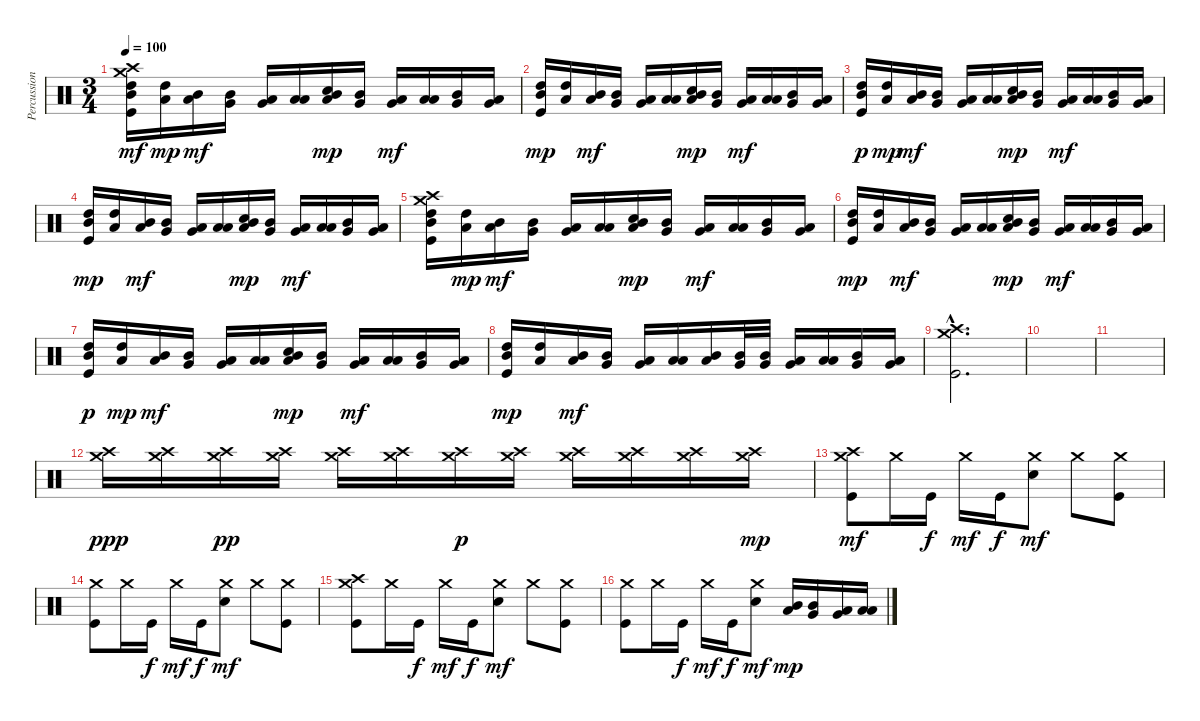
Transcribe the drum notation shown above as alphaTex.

\track ("Percussions" "Percussion") {instrument percussion}
\staff {score}
\articulation defaults
\ts (3 4)
\tempo 100
\clef neutral
\ks c
("Kick (hit)" "Mid Tom (hit)" "High Tom (hit)" "Crash high (hit)" "Crash medium (hit)").16{dy mf} ("Low Tom (hit)" "High Tom (hit)").16{dy mp} ("Low Tom (hit)" "Mid Tom (hit)").16{dy mf} ("Very Low Tom (hit)" "Mid Tom (hit)").16 ("Very Low Tom (hit)" "Low Tom (hit)").16 ("Low Floor Tom (hit)" "Low Tom (hit)").16 ("Electric Snare (hit)" "Low Tom (hit)" "Mid Tom (hit)").16{dy mp} ("Very Low Tom (hit)" "Mid Tom (hit)").16 ("Very Low Tom (hit)" "Low Tom (hit)").16{dy mf} ("Low Floor Tom (hit)" "Low Tom (hit)").16 ("Mid Tom (hit)" "Very Low Tom (hit)").16 ("Low Floor Tom (hit)" "Very Low Tom (hit)").16 |
("Kick (hit)" "Mid Tom (hit)" "High Tom (hit)").16{dy mp} ("Low Tom (hit)" "High Tom (hit)").16 ("Low Tom (hit)" "Mid Tom (hit)").16{dy mf} ("Very Low Tom (hit)" "Mid Tom (hit)").16 ("Very Low Tom (hit)" "Low Tom (hit)").16 ("Low Floor Tom (hit)" "Low Tom (hit)").16 ("Electric Snare (hit)" "Low Tom (hit)" "Mid Tom (hit)").16{dy mp} ("Very Low Tom (hit)" "Mid Tom (hit)").16 ("Very Low Tom (hit)" "Low Tom (hit)").16{dy mf} ("Low Floor Tom (hit)" "Low Tom (hit)").16 ("Mid Tom (hit)" "Very Low Tom (hit)").16 ("Low Floor Tom (hit)" "Very Low Tom (hit)").16 |
("Kick (hit)" "Mid Tom (hit)" "High Tom (hit)").16{dy p} ("Low Tom (hit)" "High Tom (hit)").16{dy mp} ("Low Tom (hit)" "Mid Tom (hit)").16{dy mf} ("Very Low Tom (hit)" "Mid Tom (hit)").16 ("Very Low Tom (hit)" "Low Tom (hit)").16 ("Low Floor Tom (hit)" "Low Tom (hit)").16 ("Electric Snare (hit)" "Low Tom (hit)" "Mid Tom (hit)").16{dy mp} ("Very Low Tom (hit)" "Mid Tom (hit)").16 ("Very Low Tom (hit)" "Low Tom (hit)").16{dy mf} ("Low Floor Tom (hit)" "Low Tom (hit)").16 ("Mid Tom (hit)" "Very Low Tom (hit)").16 ("Low Floor Tom (hit)" "Very Low Tom (hit)").16 |
("Kick (hit)" "Mid Tom (hit)" "High Tom (hit)").16{dy mp} ("Low Tom (hit)" "High Tom (hit)").16 ("Low Tom (hit)" "Mid Tom (hit)").16{dy mf} ("Very Low Tom (hit)" "Mid Tom (hit)").16 ("Very Low Tom (hit)" "Low Tom (hit)").16 ("Low Floor Tom (hit)" "Low Tom (hit)").16 ("Electric Snare (hit)" "Low Tom (hit)" "Mid Tom (hit)").16{dy mp} ("Very Low Tom (hit)" "Mid Tom (hit)").16 ("Very Low Tom (hit)" "Low Tom (hit)").16{dy mf} ("Low Floor Tom (hit)" "Low Tom (hit)").16 ("Mid Tom (hit)" "Very Low Tom (hit)").16 ("Low Floor Tom (hit)" "Very Low Tom (hit)").16 |
("Kick (hit)" "Mid Tom (hit)" "High Tom (hit)" "Crash high (hit)" "Crash medium (hit)").16 ("Low Tom (hit)" "High Tom (hit)").16{dy mp} ("Low Tom (hit)" "Mid Tom (hit)").16{dy mf} ("Very Low Tom (hit)" "Mid Tom (hit)").16 ("Very Low Tom (hit)" "Low Tom (hit)").16 ("Low Floor Tom (hit)" "Low Tom (hit)").16 ("Electric Snare (hit)" "Low Tom (hit)" "Mid Tom (hit)").16{dy mp} ("Very Low Tom (hit)" "Mid Tom (hit)").16 ("Very Low Tom (hit)" "Low Tom (hit)").16{dy mf} ("Low Floor Tom (hit)" "Low Tom (hit)").16 ("Mid Tom (hit)" "Very Low Tom (hit)").16 ("Low Floor Tom (hit)" "Very Low Tom (hit)").16 |
("Kick (hit)" "Mid Tom (hit)" "High Tom (hit)").16{dy mp} ("Low Tom (hit)" "High Tom (hit)").16 ("Low Tom (hit)" "Mid Tom (hit)").16{dy mf} ("Very Low Tom (hit)" "Mid Tom (hit)").16 ("Very Low Tom (hit)" "Low Tom (hit)").16 ("Low Floor Tom (hit)" "Low Tom (hit)").16 ("Electric Snare (hit)" "Low Tom (hit)" "Mid Tom (hit)").16{dy mp} ("Very Low Tom (hit)" "Mid Tom (hit)").16 ("Very Low Tom (hit)" "Low Tom (hit)").16{dy mf} ("Low Floor Tom (hit)" "Low Tom (hit)").16 ("Mid Tom (hit)" "Very Low Tom (hit)").16 ("Low Floor Tom (hit)" "Very Low Tom (hit)").16 |
("Kick (hit)" "Mid Tom (hit)" "High Tom (hit)").16{dy p} ("Low Tom (hit)" "High Tom (hit)").16{dy mp} ("Low Tom (hit)" "Mid Tom (hit)").16{dy mf} ("Very Low Tom (hit)" "Mid Tom (hit)").16 ("Very Low Tom (hit)" "Low Tom (hit)").16 ("Low Floor Tom (hit)" "Low Tom (hit)").16 ("Electric Snare (hit)" "Low Tom (hit)" "Mid Tom (hit)").16{dy mp} ("Very Low Tom (hit)" "Mid Tom (hit)").16 ("Very Low Tom (hit)" "Low Tom (hit)").16{dy mf} ("Low Floor Tom (hit)" "Low Tom (hit)").16 ("Mid Tom (hit)" "Very Low Tom (hit)").16 ("Low Floor Tom (hit)" "Very Low Tom (hit)").16 |
("Kick (hit)" "Mid Tom (hit)" "High Tom (hit)").16{dy mp} ("Low Tom (hit)" "High Tom (hit)").16 ("Low Tom (hit)" "Mid Tom (hit)").16{dy mf} ("Very Low Tom (hit)" "Mid Tom (hit)").16 ("Very Low Tom (hit)" "Low Tom (hit)").16 ("Low Floor Tom (hit)" "Low Tom (hit)").16 ("Low Tom (hit)" "Mid Tom (hit)").16 ("Very Low Tom (hit)" "Mid Tom (hit)").32 ("Very Low Tom (hit)" "Mid Tom (hit)").32 ("Very Low Tom (hit)" "Low Tom (hit)").16 ("Low Floor Tom (hit)" "Low Tom (hit)").16 ("Mid Tom (hit)" "Very Low Tom (hit)").16 ("Low Floor Tom (hit)" "Very Low Tom (hit)").16 |
("Kick (hit)"{hac} "Crash high (hit)"{hac} "Crash medium (hit)"{hac}).2{d} |
|
|
("Crash medium (hit)" "Crash high (hit)").16{dy ppp} ("Crash medium (hit)" "Crash high (hit)").16 ("Crash medium (hit)" "Crash high (hit)").16{dy pp} ("Crash medium (hit)" "Crash high (hit)").16 ("Crash medium (hit)" "Crash high (hit)").16 ("Crash medium (hit)" "Crash high (hit)").16 ("Crash medium (hit)" "Crash high (hit)").16{dy p} ("Crash medium (hit)" "Crash high (hit)").16 ("Crash medium (hit)" "Crash high (hit)").16 ("Crash high (hit)" "Crash medium (hit)").16 ("Crash high (hit)" "Crash medium (hit)").16 ("Crash high (hit)" "Crash medium (hit)").16{dy mp} |
("Kick (hit)" "Crash medium (hit)" "Crash high (hit)").8{dy mf} "Crash medium (hit)".16 "Kick (hit)".16{dy f} "Crash medium (hit)".16{dy mf} "Kick (hit)".16{dy f} ("Electric Snare (hit)" "Crash medium (hit)").8{dy mf} "Crash medium (hit)".8 ("Kick (hit)" "Crash medium (hit)").8 |
("Kick (hit)" "Crash medium (hit)").8 "Crash medium (hit)".16 "Kick (hit)".16{dy f} "Crash medium (hit)".16{dy mf} "Kick (hit)".16{dy f} ("Electric Snare (hit)" "Crash medium (hit)").8{dy mf} "Crash medium (hit)".8 ("Kick (hit)" "Crash medium (hit)").8 |
("Kick (hit)" "Crash medium (hit)" "Crash high (hit)").8 "Crash medium (hit)".16 "Kick (hit)".16{dy f} "Crash medium (hit)".16{dy mf} "Kick (hit)".16{dy f} ("Electric Snare (hit)" "Crash medium (hit)").8{dy mf} "Crash medium (hit)".8 ("Kick (hit)" "Crash medium (hit)").8 |
("Kick (hit)" "Crash medium (hit)").8 "Crash medium (hit)".16 "Kick (hit)".16{dy f} "Crash medium (hit)".16{dy mf} "Kick (hit)".16{dy f} ("Electric Snare (hit)" "Crash medium (hit)").8{dy mf} ("Low Tom (hit)" "Mid Tom (hit)").16{dy mp} ("Very Low Tom (hit)" "Mid Tom (hit)").16 ("Very Low Tom (hit)" "Low Tom (hit)").16 ("Low Floor Tom (hit)" "Low Tom (hit)").16
